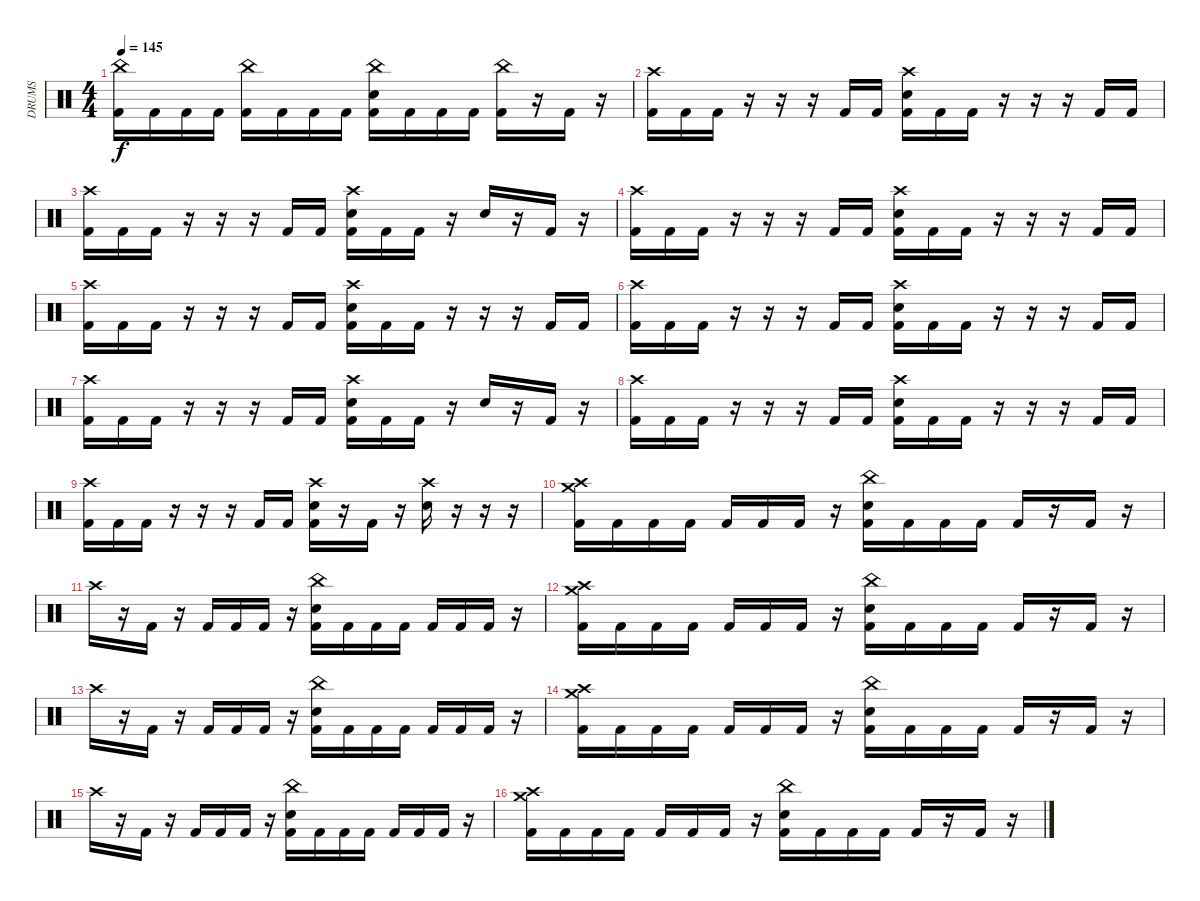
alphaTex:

\track ("DRUMS" "DRUMS") {instrument percussion}
\staff {score}
\articulation defaults
\ts (4 4)
\tempo 145
\clef neutral
\ks c
("China (hit)" "Kick (hit) 2").16{dy f} "Kick (hit) 2".16 "Kick (hit) 2".16 "Kick (hit) 2".16 ("China (hit)" "Kick (hit) 2").16 "Kick (hit) 2".16 "Kick (hit) 2".16 "Kick (hit) 2".16 ("China (hit)" "Electric Snare (hit)" "Kick (hit) 2").16 "Kick (hit) 2".16 "Kick (hit) 2".16 "Kick (hit) 2".16 ("China (hit)" "Kick (hit) 2").16 r.16 "Kick (hit) 2".16 r.16 |
("Crash high (hit)" "Kick (hit) 2").16 "Kick (hit) 2".16 "Kick (hit) 2".16 r.16 r.16 r.16 "Kick (hit) 2".16 "Kick (hit) 2".16 ("Crash high (hit)" "Electric Snare (hit)" "Kick (hit) 2").16 "Kick (hit) 2".16 "Kick (hit) 2".16 r.16 r.16 r.16 "Kick (hit) 2".16 "Kick (hit) 2".16 |
("Crash high (hit)" "Kick (hit) 2").16 "Kick (hit) 2".16 "Kick (hit) 2".16 r.16 r.16 r.16 "Kick (hit) 2".16 "Kick (hit) 2".16 ("Crash high (hit)" "Electric Snare (hit)" "Kick (hit) 2").16 "Kick (hit) 2".16 "Kick (hit) 2".16 r.16 "Electric Snare (hit)".16 r.16 "Kick (hit) 2".16 r.16 |
("Crash high (hit)" "Kick (hit) 2").16 "Kick (hit) 2".16 "Kick (hit) 2".16 r.16 r.16 r.16 "Kick (hit) 2".16 "Kick (hit) 2".16 ("Crash high (hit)" "Electric Snare (hit)" "Kick (hit) 2").16 "Kick (hit) 2".16 "Kick (hit) 2".16 r.16 r.16 r.16 "Kick (hit) 2".16 "Kick (hit) 2".16 |
("Crash high (hit)" "Kick (hit) 2").16 "Kick (hit) 2".16 "Kick (hit) 2".16 r.16 r.16 r.16 "Kick (hit) 2".16 "Kick (hit) 2".16 ("Crash high (hit)" "Electric Snare (hit)" "Kick (hit) 2").16 "Kick (hit) 2".16 "Kick (hit) 2".16 r.16 r.16 r.16 "Kick (hit) 2".16 "Kick (hit) 2".16 |
("Crash high (hit)" "Kick (hit) 2").16 "Kick (hit) 2".16 "Kick (hit) 2".16 r.16 r.16 r.16 "Kick (hit) 2".16 "Kick (hit) 2".16 ("Crash high (hit)" "Electric Snare (hit)" "Kick (hit) 2").16 "Kick (hit) 2".16 "Kick (hit) 2".16 r.16 r.16 r.16 "Kick (hit) 2".16 "Kick (hit) 2".16 |
("Crash high (hit)" "Kick (hit) 2").16 "Kick (hit) 2".16 "Kick (hit) 2".16 r.16 r.16 r.16 "Kick (hit) 2".16 "Kick (hit) 2".16 ("Crash high (hit)" "Electric Snare (hit)" "Kick (hit) 2").16 "Kick (hit) 2".16 "Kick (hit) 2".16 r.16 "Electric Snare (hit)".16 r.16 "Kick (hit) 2".16 r.16 |
("Crash high (hit)" "Kick (hit) 2").16 "Kick (hit) 2".16 "Kick (hit) 2".16 r.16 r.16 r.16 "Kick (hit) 2".16 "Kick (hit) 2".16 ("Crash high (hit)" "Electric Snare (hit)" "Kick (hit) 2").16 "Kick (hit) 2".16 "Kick (hit) 2".16 r.16 r.16 r.16 "Kick (hit) 2".16 "Kick (hit) 2".16 |
("Crash high (hit)" "Kick (hit) 2").16 "Kick (hit) 2".16 "Kick (hit) 2".16 r.16 r.16 r.16 "Kick (hit) 2".16 "Kick (hit) 2".16 ("Crash high (hit)" "Electric Snare (hit)" "Kick (hit) 2").16 r.16 "Kick (hit) 2".16 r.16 ("Crash high (hit)" "Electric Snare (hit)").16 r.16 r.16 r.16 |
("Crash medium (hit)" "Crash high (hit)" "Kick (hit) 2").16 "Kick (hit) 2".16 "Kick (hit) 2".16 "Kick (hit) 2".16 "Kick (hit) 2".16 "Kick (hit) 2".16 "Kick (hit) 2".16 r.16 ("China (hit)" "Electric Snare (hit)" "Kick (hit) 2").16 "Kick (hit) 2".16 "Kick (hit) 2".16 "Kick (hit) 2".16 "Kick (hit) 2".16 r.16 "Kick (hit) 2".16 r.16 |
"Crash high (hit)".16 r.16 "Kick (hit) 2".16 r.16 "Kick (hit) 2".16 "Kick (hit) 2".16 "Kick (hit) 2".16 r.16 ("China (hit)" "Electric Snare (hit)" "Kick (hit) 2").16 "Kick (hit) 2".16 "Kick (hit) 2".16 "Kick (hit) 2".16 "Kick (hit) 2".16 "Kick (hit) 2".16 "Kick (hit) 2".16 r.16 |
("Crash medium (hit)" "Crash high (hit)" "Kick (hit) 2").16 "Kick (hit) 2".16 "Kick (hit) 2".16 "Kick (hit) 2".16 "Kick (hit) 2".16 "Kick (hit) 2".16 "Kick (hit) 2".16 r.16 ("China (hit)" "Electric Snare (hit)" "Kick (hit) 2").16 "Kick (hit) 2".16 "Kick (hit) 2".16 "Kick (hit) 2".16 "Kick (hit) 2".16 r.16 "Kick (hit) 2".16 r.16 |
"Crash high (hit)".16 r.16 "Kick (hit) 2".16 r.16 "Kick (hit) 2".16 "Kick (hit) 2".16 "Kick (hit) 2".16 r.16 ("China (hit)" "Electric Snare (hit)" "Kick (hit) 2").16 "Kick (hit) 2".16 "Kick (hit) 2".16 "Kick (hit) 2".16 "Kick (hit) 2".16 "Kick (hit) 2".16 "Kick (hit) 2".16 r.16 |
("Crash medium (hit)" "Crash high (hit)" "Kick (hit) 2").16 "Kick (hit) 2".16 "Kick (hit) 2".16 "Kick (hit) 2".16 "Kick (hit) 2".16 "Kick (hit) 2".16 "Kick (hit) 2".16 r.16 ("China (hit)" "Electric Snare (hit)" "Kick (hit) 2").16 "Kick (hit) 2".16 "Kick (hit) 2".16 "Kick (hit) 2".16 "Kick (hit) 2".16 r.16 "Kick (hit) 2".16 r.16 |
"Crash high (hit)".16 r.16 "Kick (hit) 2".16 r.16 "Kick (hit) 2".16 "Kick (hit) 2".16 "Kick (hit) 2".16 r.16 ("China (hit)" "Electric Snare (hit)" "Kick (hit) 2").16 "Kick (hit) 2".16 "Kick (hit) 2".16 "Kick (hit) 2".16 "Kick (hit) 2".16 "Kick (hit) 2".16 "Kick (hit) 2".16 r.16 |
("Crash medium (hit)" "Crash high (hit)" "Kick (hit) 2").16 "Kick (hit) 2".16 "Kick (hit) 2".16 "Kick (hit) 2".16 "Kick (hit) 2".16 "Kick (hit) 2".16 "Kick (hit) 2".16 r.16 ("China (hit)" "Electric Snare (hit)" "Kick (hit) 2").16 "Kick (hit) 2".16 "Kick (hit) 2".16 "Kick (hit) 2".16 "Kick (hit) 2".16 r.16 "Kick (hit) 2".16 r.16
